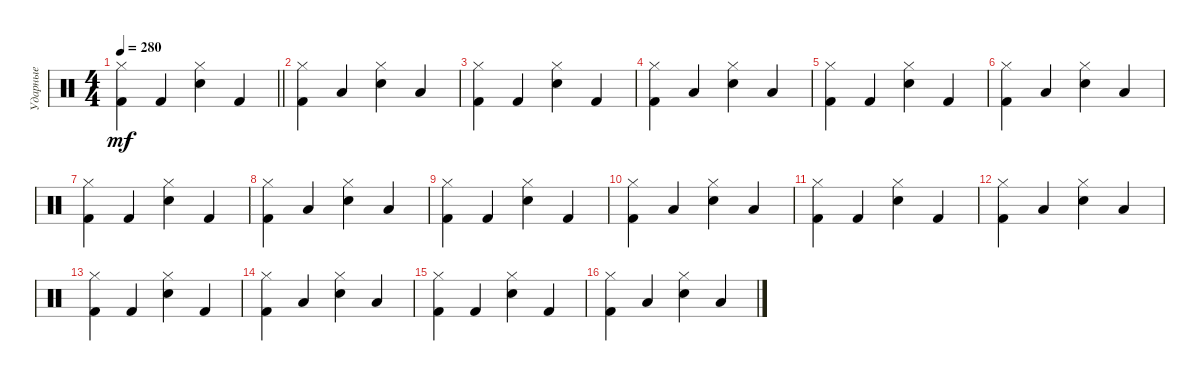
\track ("Ударные" "Ударные") {instrument percussion}
\staff {score}
\articulation defaults
\ts (4 4)
\tempo 280
\clef neutral
\barLineRight lightlight
\ks c
("Kick (hit) 2" "Hi-Hat (closed)").4{dy mf} "Kick (hit) 2".4 ("Snare (hit) 2" "Hi-Hat (closed)").4 "Kick (hit) 2".4 |
("Kick (hit) 2" "Hi-Hat (closed)").4 "Low Floor Tom (hit)".4 ("Snare (hit) 2" "Hi-Hat (closed)").4 "Low Floor Tom (hit)".4 |
("Kick (hit) 2" "Hi-Hat (closed)").4 "Kick (hit) 2".4 ("Snare (hit) 2" "Hi-Hat (closed)").4 "Kick (hit) 2".4 |
("Kick (hit) 2" "Hi-Hat (closed)").4 "Low Floor Tom (hit)".4 ("Snare (hit) 2" "Hi-Hat (closed)").4 "Low Floor Tom (hit)".4 |
("Kick (hit) 2" "Hi-Hat (closed)").4 "Kick (hit) 2".4 ("Snare (hit) 2" "Hi-Hat (closed)").4 "Kick (hit) 2".4 |
("Kick (hit) 2" "Hi-Hat (closed)").4 "Low Floor Tom (hit)".4 ("Snare (hit) 2" "Hi-Hat (closed)").4 "Low Floor Tom (hit)".4 |
("Kick (hit) 2" "Hi-Hat (closed)").4 "Kick (hit) 2".4 ("Snare (hit) 2" "Hi-Hat (closed)").4 "Kick (hit) 2".4 |
("Kick (hit) 2" "Hi-Hat (closed)").4 "Low Floor Tom (hit)".4 ("Snare (hit) 2" "Hi-Hat (closed)").4 "Low Floor Tom (hit)".4 |
("Kick (hit) 2" "Hi-Hat (closed)").4 "Kick (hit) 2".4 ("Snare (hit) 2" "Hi-Hat (closed)").4 "Kick (hit) 2".4 |
("Kick (hit) 2" "Hi-Hat (closed)").4 "Low Floor Tom (hit)".4 ("Snare (hit) 2" "Hi-Hat (closed)").4 "Low Floor Tom (hit)".4 |
("Kick (hit) 2" "Hi-Hat (closed)").4 "Kick (hit) 2".4 ("Snare (hit) 2" "Hi-Hat (closed)").4 "Kick (hit) 2".4 |
("Kick (hit) 2" "Hi-Hat (closed)").4 "Low Floor Tom (hit)".4 ("Snare (hit) 2" "Hi-Hat (closed)").4 "Low Floor Tom (hit)".4 |
("Kick (hit) 2" "Hi-Hat (closed)").4 "Kick (hit) 2".4 ("Snare (hit) 2" "Hi-Hat (closed)").4 "Kick (hit) 2".4 |
("Kick (hit) 2" "Hi-Hat (closed)").4 "Low Floor Tom (hit)".4 ("Snare (hit) 2" "Hi-Hat (closed)").4 "Low Floor Tom (hit)".4 |
("Kick (hit) 2" "Hi-Hat (closed)").4 "Kick (hit) 2".4 ("Snare (hit) 2" "Hi-Hat (closed)").4 "Kick (hit) 2".4 |
("Kick (hit) 2" "Hi-Hat (closed)").4 "Low Floor Tom (hit)".4 ("Snare (hit) 2" "Hi-Hat (closed)").4 "Low Floor Tom (hit)".4
